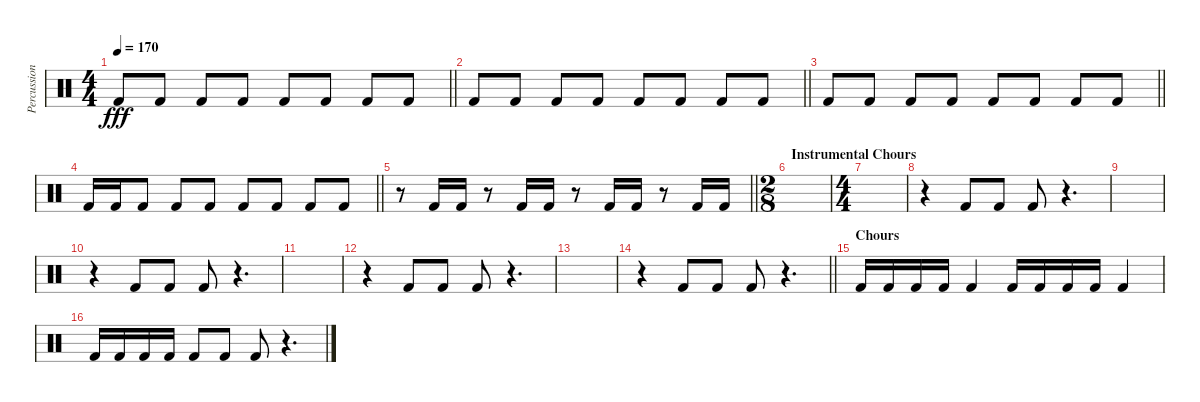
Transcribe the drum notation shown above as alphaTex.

\track ("Percussioni" "Percussion") {instrument percussion}
\staff
\articulation defaults
\ts (4 4)
\tempo 170
\clef neutral
\barLineRight lightlight
\ks c "Kick (hit) 2".8{dy fff} "Kick (hit) 2".8 "Kick (hit) 2".8 "Kick (hit) 2".8 "Kick (hit) 2".8 "Kick (hit) 2".8 "Kick (hit) 2".8 "Kick (hit) 2".8
|
\barLineRight lightlight "Kick (hit) 2".8 "Kick (hit) 2".8 "Kick (hit) 2".8 "Kick (hit) 2".8 "Kick (hit) 2".8 "Kick (hit) 2".8 "Kick (hit) 2".8 "Kick (hit) 2".8
|
\barLineRight lightlight "Kick (hit) 2".8 "Kick (hit) 2".8 "Kick (hit) 2".8 "Kick (hit) 2".8 "Kick (hit) 2".8 "Kick (hit) 2".8 "Kick (hit) 2".8 "Kick (hit) 2".8
|
\barLineRight lightlight "Kick (hit) 2".16 "Kick (hit) 2".16 "Kick (hit) 2".8 "Kick (hit) 2".8 "Kick (hit) 2".8 "Kick (hit) 2".8 "Kick (hit) 2".8 "Kick (hit) 2".8 "Kick (hit) 2".8
|
\barLineRight lightlight
r.8 "Kick (hit) 2".16 "Kick (hit) 2".16 r.8 "Kick (hit) 2".16 "Kick (hit) 2".16 r.8 "Kick (hit) 2".16 "Kick (hit) 2".16 r.8 "Kick (hit) 2".16 "Kick (hit) 2".16 |
\ts (2 8)
\section ("" "Instrumental Chours")
|
\ts (4 4)
|
r.4 "Kick (hit) 2".8 "Kick (hit) 2".8 "Kick (hit) 2".8 r.4{d} |
|
r.4 "Kick (hit) 2".8 "Kick (hit) 2".8 "Kick (hit) 2".8 r.4{d} |
|
r.4 "Kick (hit) 2".8 "Kick (hit) 2".8 "Kick (hit) 2".8 r.4{d} |
|
\barLineRight lightlight
r.4 "Kick (hit) 2".8 "Kick (hit) 2".8 "Kick (hit) 2".8 r.4{d} |
\section ("" "Chours")
"Kick (hit) 2".16 "Kick (hit) 2".16 "Kick (hit) 2".16 "Kick (hit) 2".16 "Kick (hit) 2".4 "Kick (hit) 2".16 "Kick (hit) 2".16 "Kick (hit) 2".16 "Kick (hit) 2".16 "Kick (hit) 2".4 |
"Kick (hit) 2".16 "Kick (hit) 2".16 "Kick (hit) 2".16 "Kick (hit) 2".16 "Kick (hit) 2".8 "Kick (hit) 2".8 "Kick (hit) 2".8 r.4{d}
